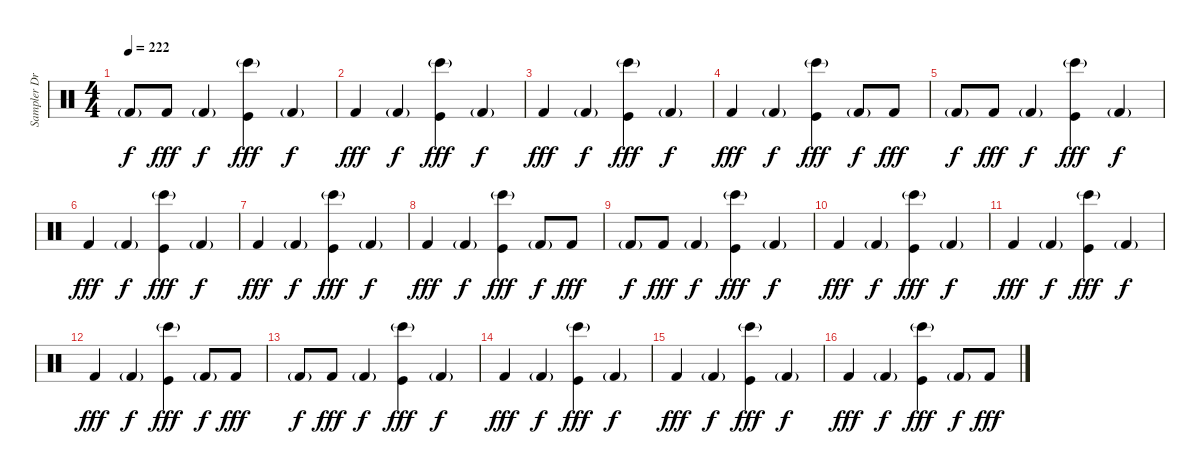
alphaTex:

\track ("Sampler Drums 2" "Sampler Dr") {instrument percussion}
\staff {score}
\articulation defaults
\ts (4 4)
\tempo 222
\clef neutral
\ks c "Kick (hit) 2"{g}.8{dy f} "Kick (hit) 2".8{dy fff} "Kick (hit) 2"{g}.4{dy f}
("Kick (hit)" "Bongo High (hit)"{g}).4{dy fff} "Kick (hit) 2"{g}.4{dy f} |
"Kick (hit) 2".4{dy fff volume 10} "Kick (hit) 2"{g}.4{dy f} ("Kick (hit)" "Bongo High (hit)"{g}).4{dy fff} "Kick (hit) 2"{g}.4{dy f} |
"Kick (hit) 2".4{dy fff} "Kick (hit) 2"{g}.4{dy f} ("Kick (hit)" "Bongo High (hit)"{g}).4{dy fff} "Kick (hit) 2"{g}.4{dy f} |
"Kick (hit) 2".4{dy fff} "Kick (hit) 2"{g}.4{dy f} ("Kick (hit)" "Bongo High (hit)"{g}).4{dy fff} "Kick (hit) 2"{g}.8{dy f} "Kick (hit) 2".8{dy fff} |
"Kick (hit) 2"{g}.8{dy f} "Kick (hit) 2".8{dy fff} "Kick (hit) 2"{g}.4{dy f} ("Kick (hit)" "Bongo High (hit)"{g}).4{dy fff} "Kick (hit) 2"{g}.4{dy f} |
"Kick (hit) 2".4{dy fff volume 10} "Kick (hit) 2"{g}.4{dy f} ("Kick (hit)" "Bongo High (hit)"{g}).4{dy fff} "Kick (hit) 2"{g}.4{dy f} |
"Kick (hit) 2".4{dy fff} "Kick (hit) 2"{g}.4{dy f} ("Kick (hit)" "Bongo High (hit)"{g}).4{dy fff} "Kick (hit) 2"{g}.4{dy f} |
"Kick (hit) 2".4{dy fff} "Kick (hit) 2"{g}.4{dy f} ("Kick (hit)" "Bongo High (hit)"{g}).4{dy fff} "Kick (hit) 2"{g}.8{dy f} "Kick (hit) 2".8{dy fff} |
"Kick (hit) 2"{g}.8{dy f} "Kick (hit) 2".8{dy fff} "Kick (hit) 2"{g}.4{dy f} ("Kick (hit)" "Bongo High (hit)"{g}).4{dy fff} "Kick (hit) 2"{g}.4{dy f} |
"Kick (hit) 2".4{dy fff volume 10} "Kick (hit) 2"{g}.4{dy f} ("Kick (hit)" "Bongo High (hit)"{g}).4{dy fff} "Kick (hit) 2"{g}.4{dy f} |
"Kick (hit) 2".4{dy fff} "Kick (hit) 2"{g}.4{dy f} ("Kick (hit)" "Bongo High (hit)"{g}).4{dy fff} "Kick (hit) 2"{g}.4{dy f} |
"Kick (hit) 2".4{dy fff} "Kick (hit) 2"{g}.4{dy f} ("Kick (hit)" "Bongo High (hit)"{g}).4{dy fff} "Kick (hit) 2"{g}.8{dy f} "Kick (hit) 2".8{dy fff} |
"Kick (hit) 2"{g}.8{dy f} "Kick (hit) 2".8{dy fff} "Kick (hit) 2"{g}.4{dy f} ("Kick (hit)" "Bongo High (hit)"{g}).4{dy fff} "Kick (hit) 2"{g}.4{dy f} |
"Kick (hit) 2".4{dy fff volume 10} "Kick (hit) 2"{g}.4{dy f} ("Kick (hit)" "Bongo High (hit)"{g}).4{dy fff} "Kick (hit) 2"{g}.4{dy f} |
"Kick (hit) 2".4{dy fff} "Kick (hit) 2"{g}.4{dy f} ("Kick (hit)" "Bongo High (hit)"{g}).4{dy fff} "Kick (hit) 2"{g}.4{dy f} |
"Kick (hit) 2".4{dy fff} "Kick (hit) 2"{g}.4{dy f} ("Kick (hit)" "Bongo High (hit)"{g}).4{dy fff} "Kick (hit) 2"{g}.8{dy f} "Kick (hit) 2".8{dy fff}
